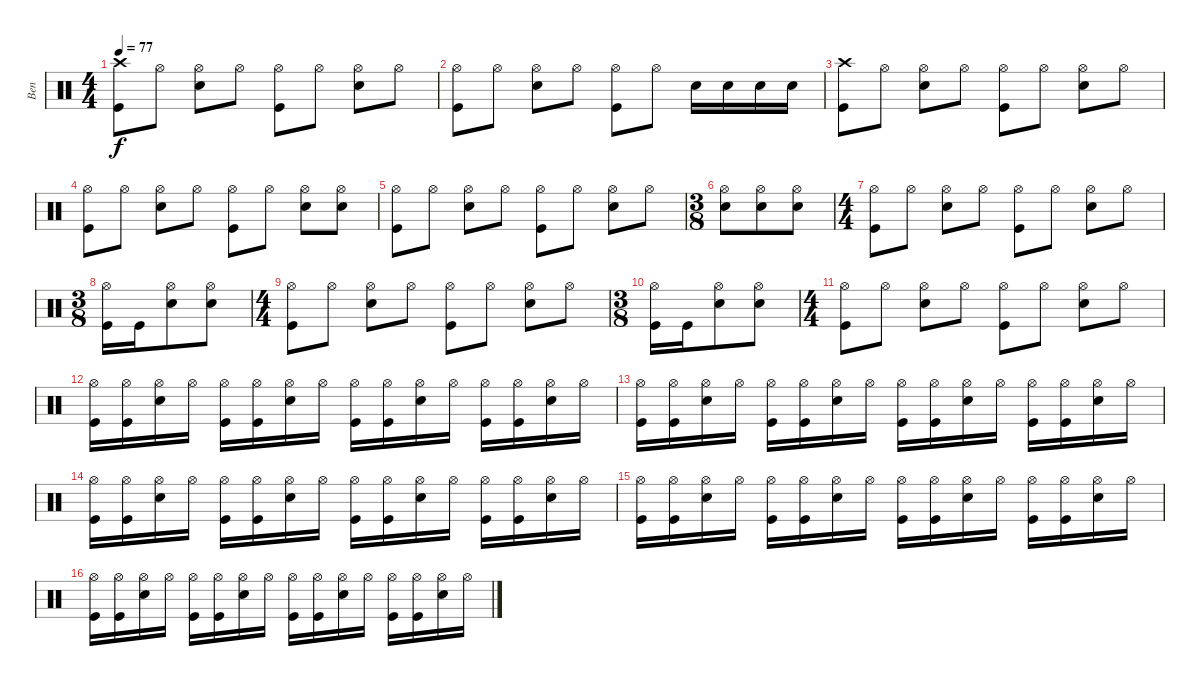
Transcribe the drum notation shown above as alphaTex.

\track ("Ben" "Ben") {instrument percussion}
\staff {score}
\articulation defaults
\ts (4 4)
\tempo 77
\clef neutral
\ks c
("Crash high (hit)" "Kick (hit)").8{dy f} "Hi-Hat (open)".8 ("Hi-Hat (open)" "Snare (hit) 2").8 "Hi-Hat (open)".8 ("Hi-Hat (open)" "Kick (hit)").8 "Hi-Hat (open)".8 ("Hi-Hat (open)" "Snare (hit) 2").8 "Hi-Hat (open)".8 |
("Hi-Hat (open)" "Kick (hit)").8 "Hi-Hat (open)".8 ("Hi-Hat (open)" "Snare (hit) 2").8 "Hi-Hat (open)".8 ("Hi-Hat (open)" "Kick (hit)").8 "Hi-Hat (open)".8 "Snare (hit) 2".16 "Snare (hit) 2".16 "Snare (hit) 2".16 "Snare (hit) 2".16 |
("Crash high (hit)" "Kick (hit)").8 "Hi-Hat (open)".8 ("Hi-Hat (open)" "Snare (hit) 2").8 "Hi-Hat (open)".8 ("Hi-Hat (open)" "Kick (hit)").8 "Hi-Hat (open)".8 ("Hi-Hat (open)" "Snare (hit) 2").8 "Hi-Hat (open)".8 |
("Hi-Hat (open)" "Kick (hit)").8 "Hi-Hat (open)".8 ("Hi-Hat (open)" "Snare (hit) 2").8 "Hi-Hat (open)".8 ("Hi-Hat (open)" "Kick (hit)").8 "Hi-Hat (open)".8 ("Hi-Hat (open)" "Snare (hit) 2").8 ("Hi-Hat (open)" "Snare (hit) 2").8 |
("Hi-Hat (open)" "Kick (hit)").8 "Hi-Hat (open)".8 ("Hi-Hat (open)" "Snare (hit) 2").8 "Hi-Hat (open)".8 ("Hi-Hat (open)" "Kick (hit)").8 "Hi-Hat (open)".8 ("Hi-Hat (open)" "Snare (hit) 2").8 "Hi-Hat (open)".8 |
\ts (3 8)
("Hi-Hat (open)" "Snare (hit) 2").8 ("Hi-Hat (open)" "Snare (hit) 2").8 ("Hi-Hat (open)" "Snare (hit) 2").8 |
\ts (4 4)
("Hi-Hat (open)" "Kick (hit)").8 "Hi-Hat (open)".8 ("Hi-Hat (open)" "Snare (hit) 2").8 "Hi-Hat (open)".8 ("Hi-Hat (open)" "Kick (hit)").8 "Hi-Hat (open)".8 ("Hi-Hat (open)" "Snare (hit) 2").8 "Hi-Hat (open)".8 |
\ts (3 8)
("Hi-Hat (open)" "Kick (hit)").16 "Kick (hit)".16 ("Hi-Hat (open)" "Snare (hit) 2").8 ("Hi-Hat (open)" "Snare (hit) 2").8 |
\ts (4 4)
("Hi-Hat (open)" "Kick (hit)").8 "Hi-Hat (open)".8 ("Hi-Hat (open)" "Snare (hit) 2").8 "Hi-Hat (open)".8 ("Hi-Hat (open)" "Kick (hit)").8 "Hi-Hat (open)".8 ("Hi-Hat (open)" "Snare (hit) 2").8 "Hi-Hat (open)".8 |
\ts (3 8)
("Hi-Hat (open)" "Kick (hit)").16 "Kick (hit)".16 ("Hi-Hat (open)" "Snare (hit) 2").8 ("Hi-Hat (open)" "Snare (hit) 2").8 |
\ts (4 4)
("Hi-Hat (open)" "Kick (hit)").8 "Hi-Hat (open)".8 ("Hi-Hat (open)" "Snare (hit) 2").8 "Hi-Hat (open)".8 ("Hi-Hat (open)" "Kick (hit)").8 "Hi-Hat (open)".8 ("Hi-Hat (open)" "Snare (hit) 2").8 "Hi-Hat (open)".8 |
("Hi-Hat (open)" "Kick (hit)").16 ("Hi-Hat (open)" "Kick (hit)").16 ("Hi-Hat (open)" "Snare (hit) 2").16 "Hi-Hat (open)".16 ("Hi-Hat (open)" "Kick (hit)").16 ("Hi-Hat (open)" "Kick (hit)").16 ("Hi-Hat (open)" "Snare (hit) 2").16 "Hi-Hat (open)".16 ("Hi-Hat (open)" "Kick (hit)").16 ("Hi-Hat (open)" "Kick (hit)").16 ("Hi-Hat (open)" "Snare (hit) 2").16 "Hi-Hat (open)".16 ("Hi-Hat (open)" "Kick (hit)").16 ("Hi-Hat (open)" "Kick (hit)").16 ("Hi-Hat (open)" "Snare (hit) 2").16 "Hi-Hat (open)".16 |
("Hi-Hat (open)" "Kick (hit)").16 ("Hi-Hat (open)" "Kick (hit)").16 ("Hi-Hat (open)" "Snare (hit) 2").16 "Hi-Hat (open)".16 ("Hi-Hat (open)" "Kick (hit)").16 ("Hi-Hat (open)" "Kick (hit)").16 ("Hi-Hat (open)" "Snare (hit) 2").16 "Hi-Hat (open)".16 ("Hi-Hat (open)" "Kick (hit)").16 ("Hi-Hat (open)" "Kick (hit)").16 ("Hi-Hat (open)" "Snare (hit) 2").16 "Hi-Hat (open)".16 ("Hi-Hat (open)" "Kick (hit)").16 ("Hi-Hat (open)" "Kick (hit)").16 ("Hi-Hat (open)" "Snare (hit) 2").16 "Hi-Hat (open)".16 |
("Hi-Hat (open)" "Kick (hit)").16 ("Hi-Hat (open)" "Kick (hit)").16 ("Hi-Hat (open)" "Snare (hit) 2").16 "Hi-Hat (open)".16 ("Hi-Hat (open)" "Kick (hit)").16 ("Hi-Hat (open)" "Kick (hit)").16 ("Hi-Hat (open)" "Snare (hit) 2").16 "Hi-Hat (open)".16 ("Hi-Hat (open)" "Kick (hit)").16 ("Hi-Hat (open)" "Kick (hit)").16 ("Hi-Hat (open)" "Snare (hit) 2").16 "Hi-Hat (open)".16 ("Hi-Hat (open)" "Kick (hit)").16 ("Hi-Hat (open)" "Kick (hit)").16 ("Hi-Hat (open)" "Snare (hit) 2").16 "Hi-Hat (open)".16 |
("Hi-Hat (open)" "Kick (hit)").16 ("Hi-Hat (open)" "Kick (hit)").16 ("Hi-Hat (open)" "Snare (hit) 2").16 "Hi-Hat (open)".16 ("Hi-Hat (open)" "Kick (hit)").16 ("Hi-Hat (open)" "Kick (hit)").16 ("Hi-Hat (open)" "Snare (hit) 2").16 "Hi-Hat (open)".16 ("Hi-Hat (open)" "Kick (hit)").16 ("Hi-Hat (open)" "Kick (hit)").16 ("Hi-Hat (open)" "Snare (hit) 2").16 "Hi-Hat (open)".16 ("Hi-Hat (open)" "Kick (hit)").16 ("Hi-Hat (open)" "Kick (hit)").16 ("Hi-Hat (open)" "Snare (hit) 2").16 "Hi-Hat (open)".16 |
("Hi-Hat (open)" "Kick (hit)").16 ("Hi-Hat (open)" "Kick (hit)").16 ("Hi-Hat (open)" "Snare (hit) 2").16 "Hi-Hat (open)".16 ("Hi-Hat (open)" "Kick (hit)").16 ("Hi-Hat (open)" "Kick (hit)").16 ("Hi-Hat (open)" "Snare (hit) 2").16 "Hi-Hat (open)".16 ("Hi-Hat (open)" "Kick (hit)").16 ("Hi-Hat (open)" "Kick (hit)").16 ("Hi-Hat (open)" "Snare (hit) 2").16 "Hi-Hat (open)".16 ("Hi-Hat (open)" "Kick (hit)").16 ("Hi-Hat (open)" "Kick (hit)").16 ("Hi-Hat (open)" "Snare (hit) 2").16 "Hi-Hat (open)".16
